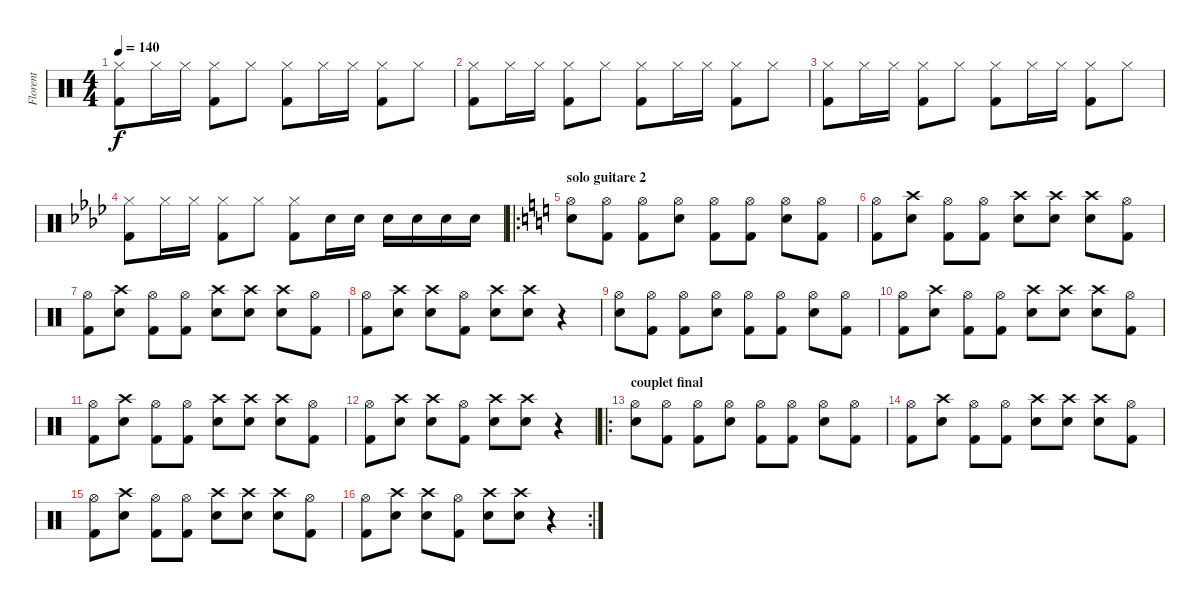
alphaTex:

\track ("Florent" "Florent") {instrument percussion}
\staff {score}
\articulation defaults
\ts (4 4)
\tempo 140
\clef neutral
\ks c
("Hi-Hat (closed)" "Kick (hit) 2").8{dy f} "Hi-Hat (closed)".16 "Hi-Hat (closed)".16 ("Hi-Hat (closed)" "Kick (hit) 2").8 "Hi-Hat (closed)".8 ("Hi-Hat (closed)" "Kick (hit) 2").8 "Hi-Hat (closed)".16 "Hi-Hat (closed)".16 ("Hi-Hat (closed)" "Kick (hit) 2").8 "Hi-Hat (closed)".8 |
("Hi-Hat (closed)" "Kick (hit) 2").8 "Hi-Hat (closed)".16 "Hi-Hat (closed)".16 ("Hi-Hat (closed)" "Kick (hit) 2").8 "Hi-Hat (closed)".8 ("Hi-Hat (closed)" "Kick (hit) 2").8 "Hi-Hat (closed)".16 "Hi-Hat (closed)".16 ("Hi-Hat (closed)" "Kick (hit) 2").8 "Hi-Hat (closed)".8 |
("Hi-Hat (closed)" "Kick (hit) 2").8 "Hi-Hat (closed)".16 "Hi-Hat (closed)".16 ("Hi-Hat (closed)" "Kick (hit) 2").8 "Hi-Hat (closed)".8 ("Hi-Hat (closed)" "Kick (hit) 2").8 "Hi-Hat (closed)".16 "Hi-Hat (closed)".16 ("Hi-Hat (closed)" "Kick (hit) 2").8 "Hi-Hat (closed)".8 |
\ks ab
("Hi-Hat (closed)" "Kick (hit) 2").8 "Hi-Hat (closed)".16 "Hi-Hat (closed)".16 ("Hi-Hat (closed)" "Kick (hit) 2").8 "Hi-Hat (closed)".8 ("Hi-Hat (closed)" "Kick (hit) 2").8 "Electric Snare (hit)".16 "Electric Snare (hit)".16 "Electric Snare (hit)".16 "Electric Snare (hit)".16 "Electric Snare (hit)".16 "Electric Snare (hit)".16 |
\ro
\section ("" "solo guitare 2")
\ks c
("Hi-Hat (open)" "Snare (hit) 2").8 ("Hi-Hat (open)" "Kick (hit) 2").8 ("Hi-Hat (open)" "Kick (hit) 2").8 ("Hi-Hat (open)" "Snare (hit) 2").8 ("Hi-Hat (open)" "Kick (hit) 2").8 ("Hi-Hat (open)" "Kick (hit) 2").8 ("Hi-Hat (open)" "Snare (hit) 2").8 ("Hi-Hat (open)" "Kick (hit) 2").8 |
("Hi-Hat (open)" "Kick (hit) 2").8 ("Crash high (hit)" "Snare (hit) 2").8 ("Hi-Hat (open)" "Kick (hit) 2").8 ("Hi-Hat (open)" "Kick (hit) 2").8 ("Crash high (hit)" "Snare (hit) 2").8 ("Crash high (hit)" "Snare (hit) 2").8 ("Crash high (hit)" "Snare (hit) 2").8 ("Hi-Hat (open)" "Kick (hit) 2").8 |
("Hi-Hat (open)" "Kick (hit) 2").8 ("Crash high (hit)" "Snare (hit) 2").8 ("Hi-Hat (open)" "Kick (hit) 2").8 ("Hi-Hat (open)" "Kick (hit) 2").8 ("Crash high (hit)" "Snare (hit) 2").8 ("Crash high (hit)" "Snare (hit) 2").8 ("Crash high (hit)" "Snare (hit) 2").8 ("Hi-Hat (open)" "Kick (hit) 2").8 |
("Hi-Hat (open)" "Kick (hit) 2").8 ("Crash high (hit)" "Snare (hit) 2").8 ("Crash high (hit)" "Snare (hit) 2").8 ("Hi-Hat (open)" "Kick (hit) 2").8 ("Crash high (hit)" "Snare (hit) 2").8 ("Crash high (hit)" "Snare (hit) 2").8 r.4 |
("Hi-Hat (open)" "Snare (hit) 2").8 ("Hi-Hat (open)" "Kick (hit) 2").8 ("Hi-Hat (open)" "Kick (hit) 2").8 ("Hi-Hat (open)" "Snare (hit) 2").8 ("Hi-Hat (open)" "Kick (hit) 2").8 ("Hi-Hat (open)" "Kick (hit) 2").8 ("Hi-Hat (open)" "Snare (hit) 2").8 ("Hi-Hat (open)" "Kick (hit) 2").8 |
("Hi-Hat (open)" "Kick (hit) 2").8 ("Crash high (hit)" "Snare (hit) 2").8 ("Hi-Hat (open)" "Kick (hit) 2").8 ("Hi-Hat (open)" "Kick (hit) 2").8 ("Crash high (hit)" "Snare (hit) 2").8 ("Crash high (hit)" "Snare (hit) 2").8 ("Crash high (hit)" "Snare (hit) 2").8 ("Hi-Hat (open)" "Kick (hit) 2").8 |
("Hi-Hat (open)" "Kick (hit) 2").8 ("Crash high (hit)" "Snare (hit) 2").8 ("Hi-Hat (open)" "Kick (hit) 2").8 ("Hi-Hat (open)" "Kick (hit) 2").8 ("Crash high (hit)" "Snare (hit) 2").8 ("Crash high (hit)" "Snare (hit) 2").8 ("Crash high (hit)" "Snare (hit) 2").8 ("Hi-Hat (open)" "Kick (hit) 2").8 |
("Hi-Hat (open)" "Kick (hit) 2").8 ("Crash high (hit)" "Snare (hit) 2").8 ("Crash high (hit)" "Snare (hit) 2").8 ("Hi-Hat (open)" "Kick (hit) 2").8 ("Crash high (hit)" "Snare (hit) 2").8 ("Crash high (hit)" "Snare (hit) 2").8 r.4 |
\ro
\section ("" "couplet final")
("Hi-Hat (open)" "Snare (hit) 2").8 ("Hi-Hat (open)" "Kick (hit) 2").8 ("Hi-Hat (open)" "Kick (hit) 2").8 ("Hi-Hat (open)" "Snare (hit) 2").8 ("Hi-Hat (open)" "Kick (hit) 2").8 ("Hi-Hat (open)" "Kick (hit) 2").8 ("Hi-Hat (open)" "Snare (hit) 2").8 ("Hi-Hat (open)" "Kick (hit) 2").8 |
("Hi-Hat (open)" "Kick (hit) 2").8 ("Crash high (hit)" "Snare (hit) 2").8 ("Hi-Hat (open)" "Kick (hit) 2").8 ("Hi-Hat (open)" "Kick (hit) 2").8 ("Crash high (hit)" "Snare (hit) 2").8 ("Crash high (hit)" "Snare (hit) 2").8 ("Crash high (hit)" "Snare (hit) 2").8 ("Hi-Hat (open)" "Kick (hit) 2").8 |
("Hi-Hat (open)" "Kick (hit) 2").8 ("Crash high (hit)" "Snare (hit) 2").8 ("Hi-Hat (open)" "Kick (hit) 2").8 ("Hi-Hat (open)" "Kick (hit) 2").8 ("Crash high (hit)" "Snare (hit) 2").8 ("Crash high (hit)" "Snare (hit) 2").8 ("Crash high (hit)" "Snare (hit) 2").8 ("Hi-Hat (open)" "Kick (hit) 2").8 |
\rc 2
("Hi-Hat (open)" "Kick (hit) 2").8 ("Crash high (hit)" "Snare (hit) 2").8 ("Crash high (hit)" "Snare (hit) 2").8 ("Hi-Hat (open)" "Kick (hit) 2").8 ("Crash high (hit)" "Snare (hit) 2").8 ("Crash high (hit)" "Snare (hit) 2").8 r.4
